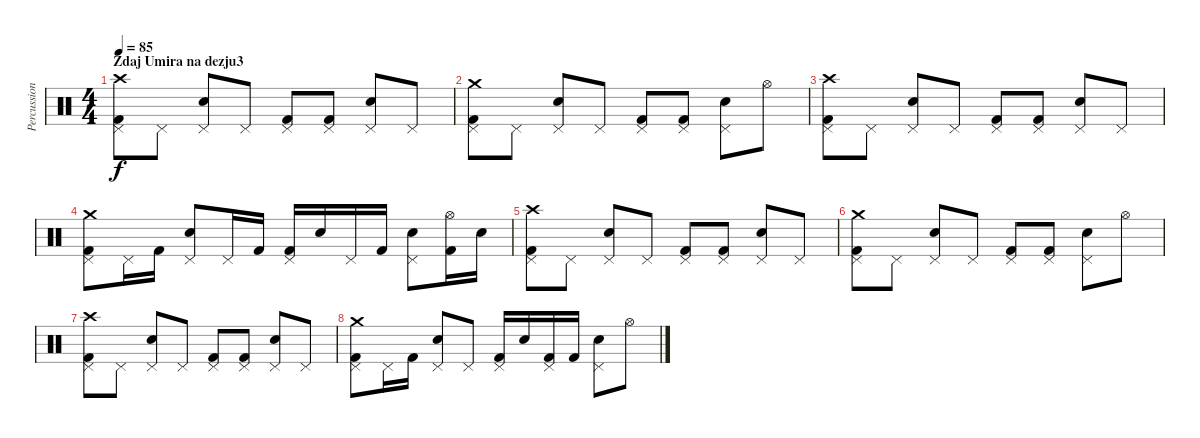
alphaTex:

\track ("Percussion" "Percussion") {instrument percussion}
\staff {score}
\articulation defaults
\ts (4 4)
\section ("" "Zdaj Umira na dezju3")
\tempo 85
\clef neutral
\ks c
("Crash high (hit)" "Pedal Hi-Hat (hit)" "Kick (hit) 2").8{dy f} "Pedal Hi-Hat (hit)".8 ("Pedal Hi-Hat (hit)" "Snare (hit) 2").8 "Pedal Hi-Hat (hit)".8 ("Pedal Hi-Hat (hit)" "Kick (hit) 2").8 ("Pedal Hi-Hat (hit)" "Kick (hit) 2").8 ("Pedal Hi-Hat (hit)" "Snare (hit) 2").8 "Pedal Hi-Hat (hit)".8 |
("Crash medium (hit)" "Pedal Hi-Hat (hit)" "Kick (hit) 2").8 "Pedal Hi-Hat (hit)".8 ("Pedal Hi-Hat (hit)" "Snare (hit) 2").8 "Pedal Hi-Hat (hit)".8 ("Pedal Hi-Hat (hit)" "Kick (hit) 2").8 ("Pedal Hi-Hat (hit)" "Kick (hit) 2").8 ("Pedal Hi-Hat (hit)" "Snare (hit) 2").8 "Hi-Hat (open)".8 |
("Crash high (hit)" "Pedal Hi-Hat (hit)" "Kick (hit) 2").8 "Pedal Hi-Hat (hit)".8 ("Pedal Hi-Hat (hit)" "Snare (hit) 2").8 "Pedal Hi-Hat (hit)".8 ("Pedal Hi-Hat (hit)" "Kick (hit) 2").8 ("Pedal Hi-Hat (hit)" "Kick (hit) 2").8 ("Pedal Hi-Hat (hit)" "Snare (hit) 2").8 "Pedal Hi-Hat (hit)".8 |
("Crash medium (hit)" "Pedal Hi-Hat (hit)" "Kick (hit) 2").8 "Pedal Hi-Hat (hit)".16 "Kick (hit) 2".16 ("Pedal Hi-Hat (hit)" "Snare (hit) 2").8 "Pedal Hi-Hat (hit)".16 "Kick (hit) 2".16 ("Pedal Hi-Hat (hit)" "Kick (hit) 2").16 "Snare (hit) 2".16 "Pedal Hi-Hat (hit)".16 "Kick (hit) 2".16 ("Pedal Hi-Hat (hit)" "Snare (hit) 2").8 ("Hi-Hat (open)" "Kick (hit) 2").16 "Snare (hit) 2".16 |
("Crash high (hit)" "Pedal Hi-Hat (hit)" "Kick (hit) 2").8 "Pedal Hi-Hat (hit)".8 ("Pedal Hi-Hat (hit)" "Snare (hit) 2").8 "Pedal Hi-Hat (hit)".8 ("Pedal Hi-Hat (hit)" "Kick (hit) 2").8 ("Pedal Hi-Hat (hit)" "Kick (hit) 2").8 ("Pedal Hi-Hat (hit)" "Snare (hit) 2").8 "Pedal Hi-Hat (hit)".8 |
("Crash medium (hit)" "Pedal Hi-Hat (hit)" "Kick (hit) 2").8 "Pedal Hi-Hat (hit)".8 ("Pedal Hi-Hat (hit)" "Snare (hit) 2").8 "Pedal Hi-Hat (hit)".8 ("Pedal Hi-Hat (hit)" "Kick (hit) 2").8 ("Pedal Hi-Hat (hit)" "Kick (hit) 2").8 ("Pedal Hi-Hat (hit)" "Snare (hit) 2").8 "Hi-Hat (open)".8 |
("Crash high (hit)" "Pedal Hi-Hat (hit)" "Kick (hit) 2").8 "Pedal Hi-Hat (hit)".8 ("Pedal Hi-Hat (hit)" "Snare (hit) 2").8 "Pedal Hi-Hat (hit)".8 ("Pedal Hi-Hat (hit)" "Kick (hit) 2").8 ("Pedal Hi-Hat (hit)" "Kick (hit) 2").8 ("Pedal Hi-Hat (hit)" "Snare (hit) 2").8 "Pedal Hi-Hat (hit)".8 |
("Crash medium (hit)" "Pedal Hi-Hat (hit)" "Kick (hit) 2").8 "Pedal Hi-Hat (hit)".16 "Kick (hit) 2".16 ("Pedal Hi-Hat (hit)" "Snare (hit) 2").8 "Pedal Hi-Hat (hit)".8 ("Pedal Hi-Hat (hit)" "Kick (hit) 2").16 "Snare (hit) 2".16 ("Pedal Hi-Hat (hit)" "Kick (hit) 2").16 "Kick (hit) 2".16 ("Pedal Hi-Hat (hit)" "Snare (hit) 2").8 "Hi-Hat (open)".8
